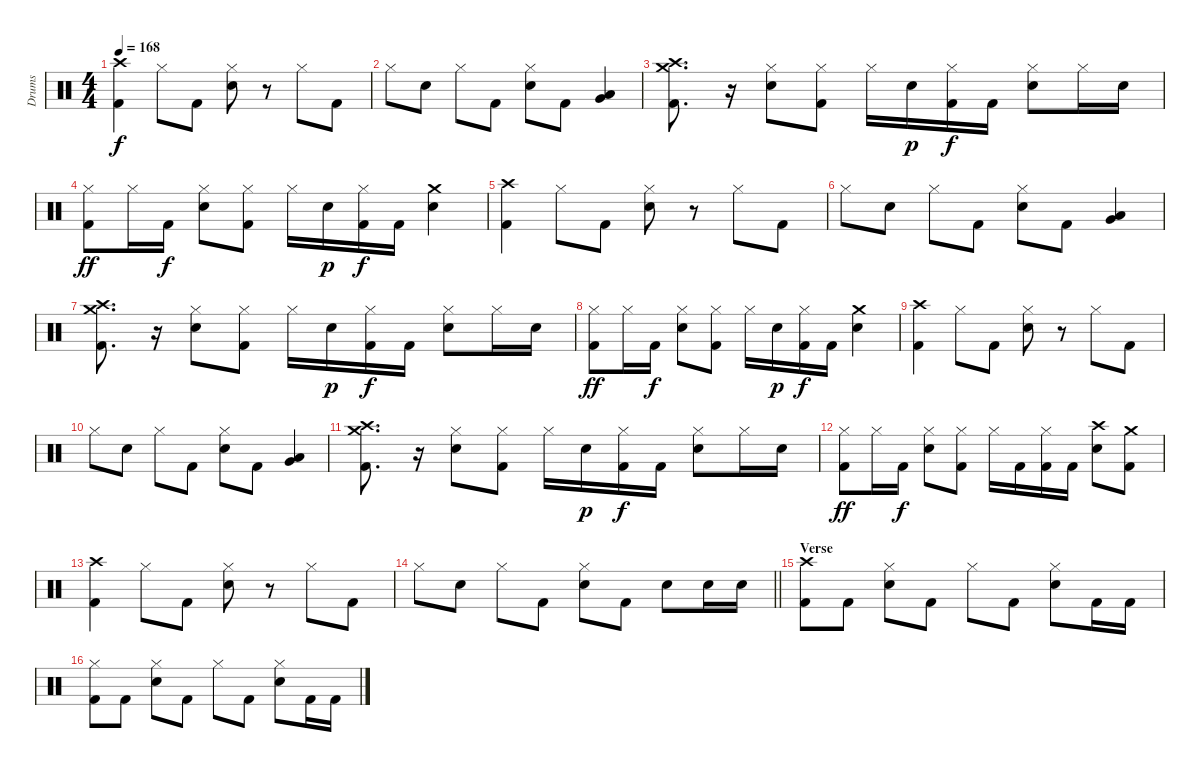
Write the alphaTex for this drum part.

\track ("Drums" "Drums") {instrument percussion}
\staff {score}
\articulation defaults
\ts (4 4)
\tempo 168
\clef neutral
\ks c
("Crash high (hit)" "Kick (hit) 2").4{dy f} "Hi-Hat (closed)".8 "Kick (hit) 2".8 ("Hi-Hat (closed)" "Snare (hit) 2").8 r.8 "Hi-Hat (closed)".8 "Kick (hit) 2".8 |
"Hi-Hat (closed)".8 "Snare (hit) 2".8 "Hi-Hat (closed)".8 "Kick (hit) 2".8 ("Hi-Hat (closed)" "Snare (hit) 2").8 "Kick (hit) 2".8 ("Low Floor Tom (hit)" "Very Low Tom (hit)").4 |
("Crash high (hit)" "Crash medium (hit)" "Kick (hit) 2").8{d} r.16 ("Hi-Hat (closed)" "Snare (hit) 2").8 ("Hi-Hat (closed)" "Kick (hit) 2").8 "Hi-Hat (closed)".16 "Snare (hit) 2".16{dy p} ("Hi-Hat (closed)" "Kick (hit) 2").16{dy f} "Kick (hit) 2".16 ("Hi-Hat (closed)" "Snare (hit) 2").8 "Hi-Hat (closed)".16 "Snare (hit) 2".16 |
("Hi-Hat (closed)" "Kick (hit) 2").8{dy ff} "Hi-Hat (closed)".16 "Kick (hit) 2".16{dy f} ("Hi-Hat (closed)" "Snare (hit) 2").8 ("Hi-Hat (closed)" "Kick (hit) 2").8 "Hi-Hat (closed)".16 "Snare (hit) 2".16{dy p} ("Hi-Hat (closed)" "Kick (hit) 2").16{dy f} "Kick (hit) 2".16 ("Crash medium (hit)" "Snare (hit) 2").4 |
("Crash high (hit)" "Kick (hit) 2").4 "Hi-Hat (closed)".8 "Kick (hit) 2".8 ("Hi-Hat (closed)" "Snare (hit) 2").8 r.8 "Hi-Hat (closed)".8 "Kick (hit) 2".8 |
"Hi-Hat (closed)".8 "Snare (hit) 2".8 "Hi-Hat (closed)".8 "Kick (hit) 2".8 ("Hi-Hat (closed)" "Snare (hit) 2").8 "Kick (hit) 2".8 ("Low Floor Tom (hit)" "Very Low Tom (hit)").4 |
("Crash high (hit)" "Crash medium (hit)" "Kick (hit) 2").8{d} r.16 ("Hi-Hat (closed)" "Snare (hit) 2").8 ("Hi-Hat (closed)" "Kick (hit) 2").8 "Hi-Hat (closed)".16 "Snare (hit) 2".16{dy p} ("Hi-Hat (closed)" "Kick (hit) 2").16{dy f} "Kick (hit) 2".16 ("Hi-Hat (closed)" "Snare (hit) 2").8 "Hi-Hat (closed)".16 "Snare (hit) 2".16 |
("Hi-Hat (closed)" "Kick (hit) 2").8{dy ff} "Hi-Hat (closed)".16 "Kick (hit) 2".16{dy f} ("Hi-Hat (closed)" "Snare (hit) 2").8 ("Hi-Hat (closed)" "Kick (hit) 2").8 "Hi-Hat (closed)".16 "Snare (hit) 2".16{dy p} ("Hi-Hat (closed)" "Kick (hit) 2").16{dy f} "Kick (hit) 2".16 ("Crash medium (hit)" "Snare (hit) 2").4 |
("Crash high (hit)" "Kick (hit) 2").4 "Hi-Hat (closed)".8 "Kick (hit) 2".8 ("Hi-Hat (closed)" "Snare (hit) 2").8 r.8 "Hi-Hat (closed)".8 "Kick (hit) 2".8 |
"Hi-Hat (closed)".8 "Snare (hit) 2".8 "Hi-Hat (closed)".8 "Kick (hit) 2".8 ("Hi-Hat (closed)" "Snare (hit) 2").8 "Kick (hit) 2".8 ("Low Floor Tom (hit)" "Very Low Tom (hit)").4 |
("Crash high (hit)" "Crash medium (hit)" "Kick (hit) 2").8{d} r.16 ("Hi-Hat (closed)" "Snare (hit) 2").8 ("Hi-Hat (closed)" "Kick (hit) 2").8 "Hi-Hat (closed)".16 "Snare (hit) 2".16{dy p} ("Hi-Hat (closed)" "Kick (hit) 2").16{dy f} "Kick (hit) 2".16 ("Hi-Hat (closed)" "Snare (hit) 2").8 "Hi-Hat (closed)".16 "Snare (hit) 2".16 |
("Hi-Hat (closed)" "Kick (hit) 2").8{dy ff} "Hi-Hat (closed)".16 "Kick (hit) 2".16{dy f} ("Hi-Hat (closed)" "Snare (hit) 2").8 ("Hi-Hat (closed)" "Kick (hit) 2").8 "Hi-Hat (closed)".16 "Kick (hit) 2".16 ("Hi-Hat (closed)" "Kick (hit) 2").16 "Kick (hit) 2".16 ("Crash high (hit)" "Snare (hit) 2").8 ("Crash medium (hit)" "Kick (hit) 2").8 |
("Crash high (hit)" "Kick (hit) 2").4 "Hi-Hat (closed)".8 "Kick (hit) 2".8 ("Hi-Hat (closed)" "Snare (hit) 2").8 r.8 "Hi-Hat (closed)".8 "Kick (hit) 2".8 |
\barLineRight lightlight "Hi-Hat (closed)".8 "Snare (hit) 2".8 "Hi-Hat (closed)".8 "Kick (hit) 2".8
("Hi-Hat (closed)" "Snare (hit) 2").8 "Kick (hit) 2".8 "Snare (hit) 2".8 "Snare (hit) 2".16 "Snare (hit) 2".16 |
\section ("" "Verse")
("Crash high (hit)" "Kick (hit) 2").8 "Kick (hit) 2".8 ("Hi-Hat (closed)" "Snare (hit) 2").8 "Kick (hit) 2".8 "Hi-Hat (closed)".8 "Kick (hit) 2".8 ("Hi-Hat (closed)" "Snare (hit) 2").8 "Kick (hit) 2".16 "Kick (hit) 2".16 |
("Hi-Hat (closed)" "Kick (hit) 2").8 "Kick (hit) 2".8 ("Hi-Hat (closed)" "Snare (hit) 2").8 "Kick (hit) 2".8 "Hi-Hat (closed)".8 "Kick (hit) 2".8 ("Hi-Hat (closed)" "Snare (hit) 2").8 "Kick (hit) 2".16 "Kick (hit) 2".16
